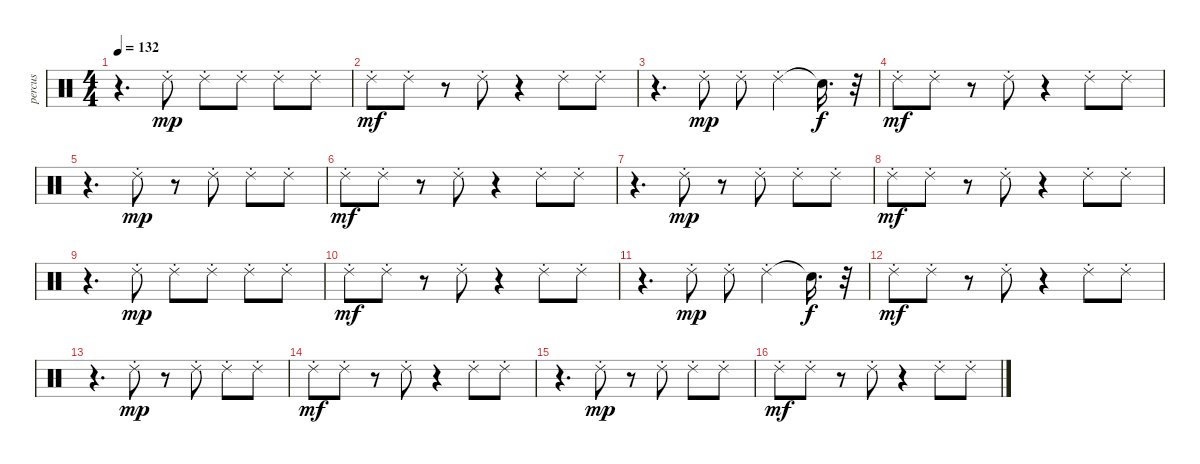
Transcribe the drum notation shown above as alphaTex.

\track ("percus" "percus") {instrument percussion}
\staff {score}
\articulation defaults
\ts (4 4)
\tempo 132
\clef neutral
\ks c
r.4{d dy mf} "Ride (choke) 2".8{dy mp} "Ride (choke) 2".8 "Ride (choke) 2".8 "Ride (choke) 2".8 "Ride (choke) 2".8 |
"Ride (choke) 2".8{dy mf} "Ride (choke) 2".8 r.8 "Ride (choke) 2".8 r.4 "Ride (choke) 2".8 "Ride (choke) 2".8 |
r.4{d} "Ride (choke) 2".8{dy mp} "Ride (choke) 2".8 "Ride (choke) 2".4 "Snare (hit)"{t}.16{d dy f} r.32 |
"Ride (choke) 2".8{dy mf} "Ride (choke) 2".8 r.8 "Ride (choke) 2".8 r.4 "Ride (choke) 2".8 "Ride (choke) 2".8 |
r.4{d} "Ride (choke) 2".8{dy mp} r.8 "Ride (choke) 2".8 "Ride (choke) 2".8 "Ride (choke) 2".8 |
"Ride (choke) 2".8{dy mf} "Ride (choke) 2".8 r.8 "Ride (choke) 2".8 r.4 "Ride (choke) 2".8 "Ride (choke) 2".8 |
r.4{d} "Ride (choke) 2".8{dy mp} r.8 "Ride (choke) 2".8 "Ride (choke) 2".8 "Ride (choke) 2".8 |
"Ride (choke) 2".8{dy mf} "Ride (choke) 2".8 r.8 "Ride (choke) 2".8 r.4 "Ride (choke) 2".8 "Ride (choke) 2".8 |
r.4{d} "Ride (choke) 2".8{dy mp} "Ride (choke) 2".8 "Ride (choke) 2".8 "Ride (choke) 2".8 "Ride (choke) 2".8 |
"Ride (choke) 2".8{dy mf} "Ride (choke) 2".8 r.8 "Ride (choke) 2".8 r.4 "Ride (choke) 2".8 "Ride (choke) 2".8 |
r.4{d} "Ride (choke) 2".8{dy mp} "Ride (choke) 2".8 "Ride (choke) 2".4 "Snare (hit)"{t}.16{d dy f} r.32 |
"Ride (choke) 2".8{dy mf} "Ride (choke) 2".8 r.8 "Ride (choke) 2".8 r.4 "Ride (choke) 2".8 "Ride (choke) 2".8 |
r.4{d} "Ride (choke) 2".8{dy mp} r.8 "Ride (choke) 2".8 "Ride (choke) 2".8 "Ride (choke) 2".8 |
"Ride (choke) 2".8{dy mf} "Ride (choke) 2".8 r.8 "Ride (choke) 2".8 r.4 "Ride (choke) 2".8 "Ride (choke) 2".8 |
r.4{d} "Ride (choke) 2".8{dy mp} r.8 "Ride (choke) 2".8 "Ride (choke) 2".8 "Ride (choke) 2".8 |
"Ride (choke) 2".8{dy mf} "Ride (choke) 2".8 r.8 "Ride (choke) 2".8 r.4 "Ride (choke) 2".8 "Ride (choke) 2".8
